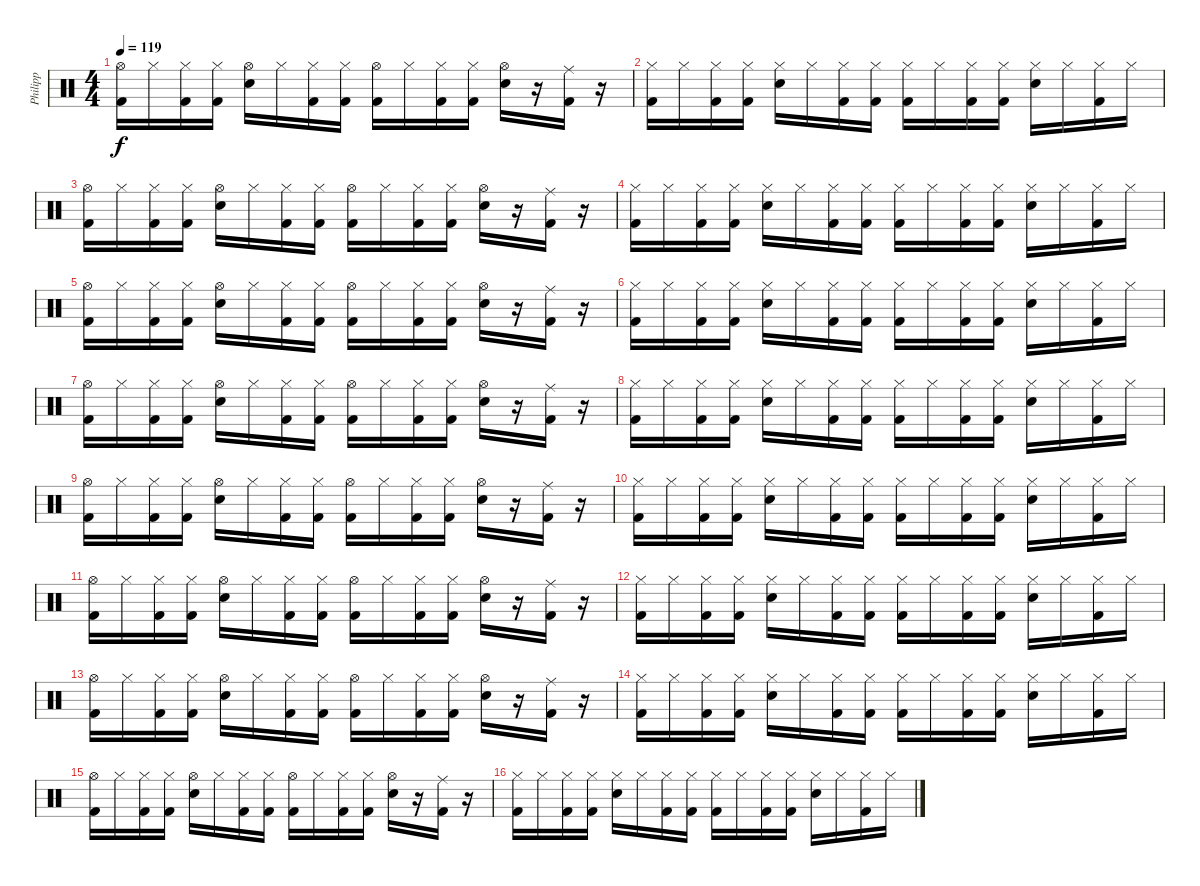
\track ("Philipp" "Philipp") {instrument percussion}
\staff {score}
\articulation defaults
\ts (4 4)
\tempo 119
\clef neutral
\ks c
("Hi-Hat (open)" "Kick (hit) 2").16{dy f} "Hi-Hat (closed)".16 ("Hi-Hat (closed)" "Kick (hit) 2").16 ("Hi-Hat (closed)" "Kick (hit) 2").16 ("Hi-Hat (open)" "Electric Snare (hit)").16 "Hi-Hat (closed)".16 ("Hi-Hat (closed)" "Kick (hit) 2").16 ("Hi-Hat (closed)" "Kick (hit) 2").16 ("Hi-Hat (open)" "Kick (hit) 2").16 "Hi-Hat (closed)".16 ("Hi-Hat (closed)" "Kick (hit) 2").16 ("Hi-Hat (closed)" "Kick (hit) 2").16 ("Hi-Hat (open)" "Electric Snare (hit)").16 r.16 ("Ride (middle)" "Kick (hit) 2").16 r.16 |
("Hi-Hat (closed)" "Kick (hit) 2").16 "Hi-Hat (closed)".16 ("Hi-Hat (closed)" "Kick (hit) 2").16 ("Hi-Hat (closed)" "Kick (hit) 2").16 ("Hi-Hat (closed)" "Electric Snare (hit)").16 "Hi-Hat (closed)".16 ("Hi-Hat (closed)" "Kick (hit) 2").16 ("Hi-Hat (closed)" "Kick (hit) 2").16 ("Hi-Hat (closed)" "Kick (hit) 2").16 "Hi-Hat (closed)".16 ("Hi-Hat (closed)" "Kick (hit) 2").16 ("Hi-Hat (closed)" "Kick (hit) 2").16 ("Hi-Hat (closed)" "Electric Snare (hit)").16 "Hi-Hat (closed)".16 ("Hi-Hat (closed)" "Kick (hit) 2").16 "Hi-Hat (closed)".16 |
("Hi-Hat (open)" "Kick (hit) 2").16 "Hi-Hat (closed)".16 ("Hi-Hat (closed)" "Kick (hit) 2").16 ("Hi-Hat (closed)" "Kick (hit) 2").16 ("Hi-Hat (open)" "Electric Snare (hit)").16 "Hi-Hat (closed)".16 ("Hi-Hat (closed)" "Kick (hit) 2").16 ("Hi-Hat (closed)" "Kick (hit) 2").16 ("Hi-Hat (open)" "Kick (hit) 2").16 "Hi-Hat (closed)".16 ("Hi-Hat (closed)" "Kick (hit) 2").16 ("Hi-Hat (closed)" "Kick (hit) 2").16 ("Hi-Hat (open)" "Electric Snare (hit)").16 r.16 ("Ride (middle)" "Kick (hit) 2").16 r.16 |
("Hi-Hat (closed)" "Kick (hit) 2").16 "Hi-Hat (closed)".16 ("Hi-Hat (closed)" "Kick (hit) 2").16 ("Hi-Hat (closed)" "Kick (hit) 2").16 ("Hi-Hat (closed)" "Electric Snare (hit)").16 "Hi-Hat (closed)".16 ("Hi-Hat (closed)" "Kick (hit) 2").16 ("Hi-Hat (closed)" "Kick (hit) 2").16 ("Hi-Hat (closed)" "Kick (hit) 2").16 "Hi-Hat (closed)".16 ("Hi-Hat (closed)" "Kick (hit) 2").16 ("Hi-Hat (closed)" "Kick (hit) 2").16 ("Hi-Hat (closed)" "Electric Snare (hit)").16 "Hi-Hat (closed)".16 ("Hi-Hat (closed)" "Kick (hit) 2").16 "Hi-Hat (closed)".16 |
("Hi-Hat (open)" "Kick (hit) 2").16 "Hi-Hat (closed)".16 ("Hi-Hat (closed)" "Kick (hit) 2").16 ("Hi-Hat (closed)" "Kick (hit) 2").16 ("Hi-Hat (open)" "Electric Snare (hit)").16 "Hi-Hat (closed)".16 ("Hi-Hat (closed)" "Kick (hit) 2").16 ("Hi-Hat (closed)" "Kick (hit) 2").16 ("Hi-Hat (open)" "Kick (hit) 2").16 "Hi-Hat (closed)".16 ("Hi-Hat (closed)" "Kick (hit) 2").16 ("Hi-Hat (closed)" "Kick (hit) 2").16 ("Hi-Hat (open)" "Electric Snare (hit)").16 r.16 ("Ride (middle)" "Kick (hit) 2").16 r.16 |
("Hi-Hat (closed)" "Kick (hit) 2").16 "Hi-Hat (closed)".16 ("Hi-Hat (closed)" "Kick (hit) 2").16 ("Hi-Hat (closed)" "Kick (hit) 2").16 ("Hi-Hat (closed)" "Electric Snare (hit)").16 "Hi-Hat (closed)".16 ("Hi-Hat (closed)" "Kick (hit) 2").16 ("Hi-Hat (closed)" "Kick (hit) 2").16 ("Hi-Hat (closed)" "Kick (hit) 2").16 "Hi-Hat (closed)".16 ("Hi-Hat (closed)" "Kick (hit) 2").16 ("Hi-Hat (closed)" "Kick (hit) 2").16 ("Hi-Hat (closed)" "Electric Snare (hit)").16 "Hi-Hat (closed)".16 ("Hi-Hat (closed)" "Kick (hit) 2").16 "Hi-Hat (closed)".16 |
("Hi-Hat (open)" "Kick (hit) 2").16 "Hi-Hat (closed)".16 ("Hi-Hat (closed)" "Kick (hit) 2").16 ("Hi-Hat (closed)" "Kick (hit) 2").16 ("Hi-Hat (open)" "Electric Snare (hit)").16 "Hi-Hat (closed)".16 ("Hi-Hat (closed)" "Kick (hit) 2").16 ("Hi-Hat (closed)" "Kick (hit) 2").16 ("Hi-Hat (open)" "Kick (hit) 2").16 "Hi-Hat (closed)".16 ("Hi-Hat (closed)" "Kick (hit) 2").16 ("Hi-Hat (closed)" "Kick (hit) 2").16 ("Hi-Hat (open)" "Electric Snare (hit)").16 r.16 ("Ride (middle)" "Kick (hit) 2").16 r.16 |
("Hi-Hat (closed)" "Kick (hit) 2").16 "Hi-Hat (closed)".16 ("Hi-Hat (closed)" "Kick (hit) 2").16 ("Hi-Hat (closed)" "Kick (hit) 2").16 ("Hi-Hat (closed)" "Electric Snare (hit)").16 "Hi-Hat (closed)".16 ("Hi-Hat (closed)" "Kick (hit) 2").16 ("Hi-Hat (closed)" "Kick (hit) 2").16 ("Hi-Hat (closed)" "Kick (hit) 2").16 "Hi-Hat (closed)".16 ("Hi-Hat (closed)" "Kick (hit) 2").16 ("Hi-Hat (closed)" "Kick (hit) 2").16 ("Hi-Hat (closed)" "Electric Snare (hit)").16 "Hi-Hat (closed)".16 ("Hi-Hat (closed)" "Kick (hit) 2").16 "Hi-Hat (closed)".16 |
("Hi-Hat (open)" "Kick (hit) 2").16 "Hi-Hat (closed)".16 ("Hi-Hat (closed)" "Kick (hit) 2").16 ("Hi-Hat (closed)" "Kick (hit) 2").16 ("Hi-Hat (open)" "Electric Snare (hit)").16 "Hi-Hat (closed)".16 ("Hi-Hat (closed)" "Kick (hit) 2").16 ("Hi-Hat (closed)" "Kick (hit) 2").16 ("Hi-Hat (open)" "Kick (hit) 2").16 "Hi-Hat (closed)".16 ("Hi-Hat (closed)" "Kick (hit) 2").16 ("Hi-Hat (closed)" "Kick (hit) 2").16 ("Hi-Hat (open)" "Electric Snare (hit)").16 r.16 ("Ride (middle)" "Kick (hit) 2").16 r.16 |
("Hi-Hat (closed)" "Kick (hit) 2").16 "Hi-Hat (closed)".16 ("Hi-Hat (closed)" "Kick (hit) 2").16 ("Hi-Hat (closed)" "Kick (hit) 2").16 ("Hi-Hat (closed)" "Electric Snare (hit)").16 "Hi-Hat (closed)".16 ("Hi-Hat (closed)" "Kick (hit) 2").16 ("Hi-Hat (closed)" "Kick (hit) 2").16 ("Hi-Hat (closed)" "Kick (hit) 2").16 "Hi-Hat (closed)".16 ("Hi-Hat (closed)" "Kick (hit) 2").16 ("Hi-Hat (closed)" "Kick (hit) 2").16 ("Hi-Hat (closed)" "Electric Snare (hit)").16 "Hi-Hat (closed)".16 ("Hi-Hat (closed)" "Kick (hit) 2").16 "Hi-Hat (closed)".16 |
("Hi-Hat (open)" "Kick (hit) 2").16 "Hi-Hat (closed)".16 ("Hi-Hat (closed)" "Kick (hit) 2").16 ("Hi-Hat (closed)" "Kick (hit) 2").16 ("Hi-Hat (open)" "Electric Snare (hit)").16 "Hi-Hat (closed)".16 ("Hi-Hat (closed)" "Kick (hit) 2").16 ("Hi-Hat (closed)" "Kick (hit) 2").16 ("Hi-Hat (open)" "Kick (hit) 2").16 "Hi-Hat (closed)".16 ("Hi-Hat (closed)" "Kick (hit) 2").16 ("Hi-Hat (closed)" "Kick (hit) 2").16 ("Hi-Hat (open)" "Electric Snare (hit)").16 r.16 ("Ride (middle)" "Kick (hit) 2").16 r.16 |
("Hi-Hat (closed)" "Kick (hit) 2").16 "Hi-Hat (closed)".16 ("Hi-Hat (closed)" "Kick (hit) 2").16 ("Hi-Hat (closed)" "Kick (hit) 2").16 ("Hi-Hat (closed)" "Electric Snare (hit)").16 "Hi-Hat (closed)".16 ("Hi-Hat (closed)" "Kick (hit) 2").16 ("Hi-Hat (closed)" "Kick (hit) 2").16 ("Hi-Hat (closed)" "Kick (hit) 2").16 "Hi-Hat (closed)".16 ("Hi-Hat (closed)" "Kick (hit) 2").16 ("Hi-Hat (closed)" "Kick (hit) 2").16 ("Hi-Hat (closed)" "Electric Snare (hit)").16 "Hi-Hat (closed)".16 ("Hi-Hat (closed)" "Kick (hit) 2").16 "Hi-Hat (closed)".16 |
("Hi-Hat (open)" "Kick (hit) 2").16 "Hi-Hat (closed)".16 ("Hi-Hat (closed)" "Kick (hit) 2").16 ("Hi-Hat (closed)" "Kick (hit) 2").16 ("Hi-Hat (open)" "Electric Snare (hit)").16 "Hi-Hat (closed)".16 ("Hi-Hat (closed)" "Kick (hit) 2").16 ("Hi-Hat (closed)" "Kick (hit) 2").16 ("Hi-Hat (open)" "Kick (hit) 2").16 "Hi-Hat (closed)".16 ("Hi-Hat (closed)" "Kick (hit) 2").16 ("Hi-Hat (closed)" "Kick (hit) 2").16 ("Hi-Hat (open)" "Electric Snare (hit)").16 r.16 ("Ride (middle)" "Kick (hit) 2").16 r.16 |
("Hi-Hat (closed)" "Kick (hit) 2").16 "Hi-Hat (closed)".16 ("Hi-Hat (closed)" "Kick (hit) 2").16 ("Hi-Hat (closed)" "Kick (hit) 2").16 ("Hi-Hat (closed)" "Electric Snare (hit)").16 "Hi-Hat (closed)".16 ("Hi-Hat (closed)" "Kick (hit) 2").16 ("Hi-Hat (closed)" "Kick (hit) 2").16 ("Hi-Hat (closed)" "Kick (hit) 2").16 "Hi-Hat (closed)".16 ("Hi-Hat (closed)" "Kick (hit) 2").16 ("Hi-Hat (closed)" "Kick (hit) 2").16 ("Hi-Hat (closed)" "Electric Snare (hit)").16 "Hi-Hat (closed)".16 ("Hi-Hat (closed)" "Kick (hit) 2").16 "Hi-Hat (closed)".16 |
("Hi-Hat (open)" "Kick (hit) 2").16 "Hi-Hat (closed)".16 ("Hi-Hat (closed)" "Kick (hit) 2").16 ("Hi-Hat (closed)" "Kick (hit) 2").16 ("Hi-Hat (open)" "Electric Snare (hit)").16 "Hi-Hat (closed)".16 ("Hi-Hat (closed)" "Kick (hit) 2").16 ("Hi-Hat (closed)" "Kick (hit) 2").16 ("Hi-Hat (open)" "Kick (hit) 2").16 "Hi-Hat (closed)".16 ("Hi-Hat (closed)" "Kick (hit) 2").16 ("Hi-Hat (closed)" "Kick (hit) 2").16 ("Hi-Hat (open)" "Electric Snare (hit)").16 r.16 ("Ride (middle)" "Kick (hit) 2").16 r.16 |
("Hi-Hat (closed)" "Kick (hit) 2").16 "Hi-Hat (closed)".16 ("Hi-Hat (closed)" "Kick (hit) 2").16 ("Hi-Hat (closed)" "Kick (hit) 2").16 ("Hi-Hat (closed)" "Electric Snare (hit)").16 "Hi-Hat (closed)".16 ("Hi-Hat (closed)" "Kick (hit) 2").16 ("Hi-Hat (closed)" "Kick (hit) 2").16 ("Hi-Hat (closed)" "Kick (hit) 2").16 "Hi-Hat (closed)".16 ("Hi-Hat (closed)" "Kick (hit) 2").16 ("Hi-Hat (closed)" "Kick (hit) 2").16 ("Hi-Hat (closed)" "Electric Snare (hit)").16 "Hi-Hat (closed)".16 ("Hi-Hat (closed)" "Kick (hit) 2").16 "Hi-Hat (closed)".16
